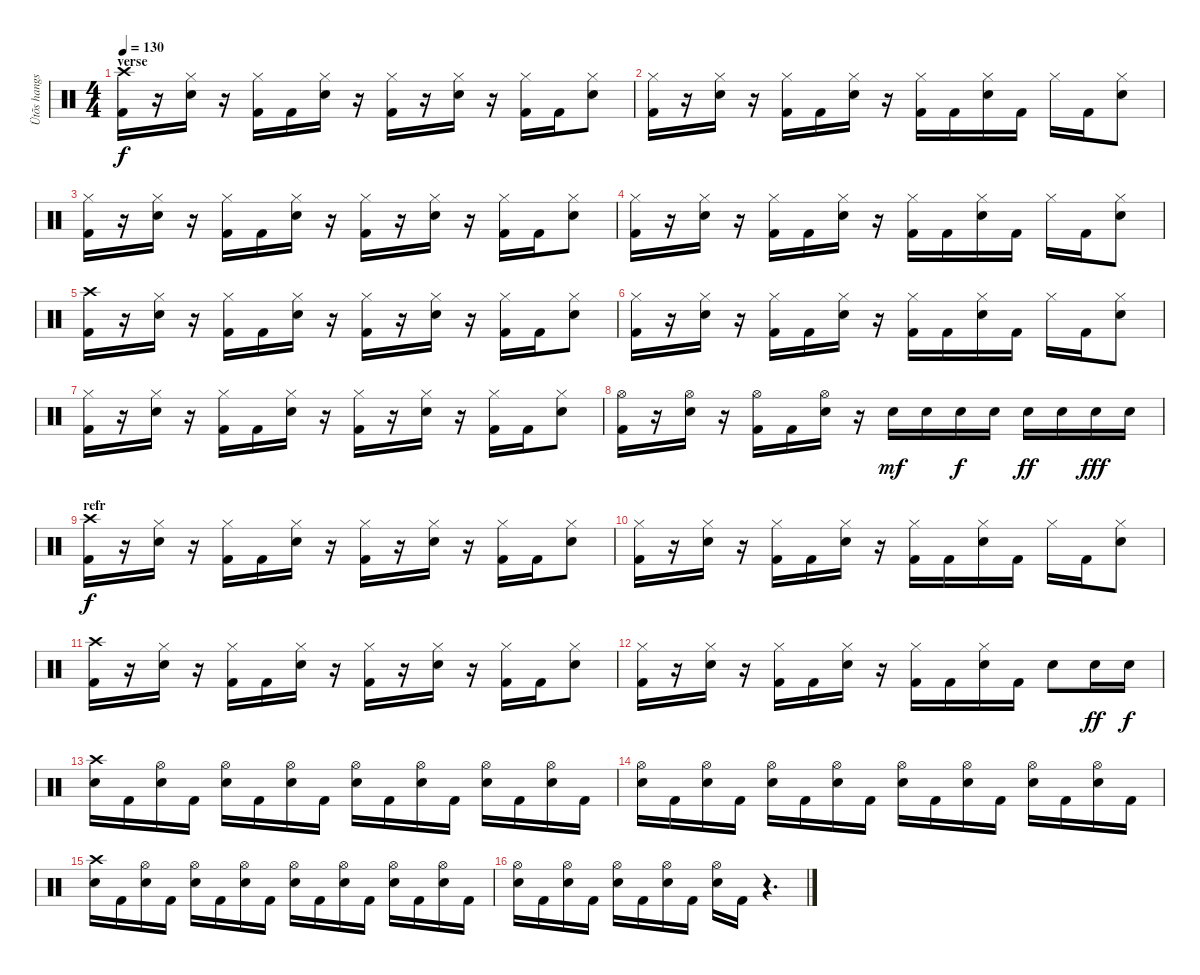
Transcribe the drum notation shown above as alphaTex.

\track ("Ütõs hangszer" "Ütõs hangs") {instrument percussion}
\staff {score}
\articulation defaults
\ts (4 4)
\section ("" "verse")
\tempo 130
\clef neutral
\ks c
("Crash high (hit)" "Kick (hit) 2").16{dy f} r.16 ("Hi-Hat (closed)" "Snare (hit) 2").16 r.16 ("Hi-Hat (closed)" "Kick (hit) 2").16 "Kick (hit) 2".16 ("Hi-Hat (closed)" "Snare (hit) 2").16 r.16 ("Hi-Hat (closed)" "Kick (hit) 2").16 r.16 ("Hi-Hat (closed)" "Snare (hit) 2").16 r.16 ("Hi-Hat (closed)" "Kick (hit) 2").16 "Kick (hit) 2".16 ("Hi-Hat (closed)" "Snare (hit) 2").8 |
("Hi-Hat (closed)" "Kick (hit) 2").16 r.16 ("Hi-Hat (closed)" "Snare (hit) 2").16 r.16 ("Hi-Hat (closed)" "Kick (hit) 2").16 "Kick (hit) 2".16 ("Hi-Hat (closed)" "Snare (hit) 2").16 r.16 ("Hi-Hat (closed)" "Kick (hit) 2").16 "Kick (hit) 2".16 ("Hi-Hat (closed)" "Snare (hit) 2").16 "Kick (hit) 2".16 "Hi-Hat (closed)".16 "Kick (hit) 2".16 ("Hi-Hat (closed)" "Snare (hit) 2").8 |
("Hi-Hat (closed)" "Kick (hit) 2").16 r.16 ("Hi-Hat (closed)" "Snare (hit) 2").16 r.16 ("Hi-Hat (closed)" "Kick (hit) 2").16 "Kick (hit) 2".16 ("Hi-Hat (closed)" "Snare (hit) 2").16 r.16 ("Hi-Hat (closed)" "Kick (hit) 2").16 r.16 ("Hi-Hat (closed)" "Snare (hit) 2").16 r.16 ("Hi-Hat (closed)" "Kick (hit) 2").16 "Kick (hit) 2".16 ("Hi-Hat (closed)" "Snare (hit) 2").8 |
("Hi-Hat (closed)" "Kick (hit) 2").16 r.16 ("Hi-Hat (closed)" "Snare (hit) 2").16 r.16 ("Hi-Hat (closed)" "Kick (hit) 2").16 "Kick (hit) 2".16 ("Hi-Hat (closed)" "Snare (hit) 2").16 r.16 ("Hi-Hat (closed)" "Kick (hit) 2").16 "Kick (hit) 2".16 ("Hi-Hat (closed)" "Snare (hit) 2").16 "Kick (hit) 2".16 "Hi-Hat (closed)".16 "Kick (hit) 2".16 ("Hi-Hat (closed)" "Snare (hit) 2").8 |
("Crash high (hit)" "Kick (hit) 2").16 r.16 ("Hi-Hat (closed)" "Snare (hit) 2").16 r.16 ("Hi-Hat (closed)" "Kick (hit) 2").16 "Kick (hit) 2".16 ("Hi-Hat (closed)" "Snare (hit) 2").16 r.16 ("Hi-Hat (closed)" "Kick (hit) 2").16 r.16 ("Hi-Hat (closed)" "Snare (hit) 2").16 r.16 ("Hi-Hat (closed)" "Kick (hit) 2").16 "Kick (hit) 2".16 ("Hi-Hat (closed)" "Snare (hit) 2").8 |
("Hi-Hat (closed)" "Kick (hit) 2").16 r.16 ("Hi-Hat (closed)" "Snare (hit) 2").16 r.16 ("Hi-Hat (closed)" "Kick (hit) 2").16 "Kick (hit) 2".16 ("Hi-Hat (closed)" "Snare (hit) 2").16 r.16 ("Hi-Hat (closed)" "Kick (hit) 2").16 "Kick (hit) 2".16 ("Hi-Hat (closed)" "Snare (hit) 2").16 "Kick (hit) 2".16 "Hi-Hat (closed)".16 "Kick (hit) 2".16 ("Hi-Hat (closed)" "Snare (hit) 2").8 |
("Hi-Hat (closed)" "Kick (hit) 2").16 r.16 ("Hi-Hat (closed)" "Snare (hit) 2").16 r.16 ("Hi-Hat (closed)" "Kick (hit) 2").16 "Kick (hit) 2".16 ("Hi-Hat (closed)" "Snare (hit) 2").16 r.16 ("Hi-Hat (closed)" "Kick (hit) 2").16 r.16 ("Hi-Hat (closed)" "Snare (hit) 2").16 r.16 ("Hi-Hat (closed)" "Kick (hit) 2").16 "Kick (hit) 2".16 ("Hi-Hat (closed)" "Snare (hit) 2").8 |
("Hi-Hat (open)" "Kick (hit) 2").16 r.16 ("Hi-Hat (open)" "Snare (hit) 2").16 r.16 ("Hi-Hat (open)" "Kick (hit) 2").16 "Kick (hit) 2".16 ("Hi-Hat (open)" "Snare (hit) 2").16 r.16 "Snare (hit) 2".16{dy mf} "Snare (hit) 2".16 "Snare (hit) 2".16{dy f} "Snare (hit) 2".16 "Snare (hit) 2".16{dy ff} "Snare (hit) 2".16 "Snare (hit) 2".16{dy fff} "Snare (hit) 2".16 |
\section ("" "refr")
("Crash high (hit)" "Kick (hit) 2").16{dy f} r.16 ("Hi-Hat (closed)" "Snare (hit) 2").16 r.16 ("Hi-Hat (closed)" "Kick (hit) 2").16 "Kick (hit) 2".16 ("Hi-Hat (closed)" "Snare (hit) 2").16 r.16 ("Hi-Hat (closed)" "Kick (hit) 2").16 r.16 ("Hi-Hat (closed)" "Snare (hit) 2").16 r.16 ("Hi-Hat (closed)" "Kick (hit) 2").16 "Kick (hit) 2".16 ("Hi-Hat (closed)" "Snare (hit) 2").8 |
("Hi-Hat (closed)" "Kick (hit) 2").16 r.16 ("Hi-Hat (closed)" "Snare (hit) 2").16 r.16 ("Hi-Hat (closed)" "Kick (hit) 2").16 "Kick (hit) 2".16 ("Hi-Hat (closed)" "Snare (hit) 2").16 r.16 ("Hi-Hat (closed)" "Kick (hit) 2").16 "Kick (hit) 2".16 ("Hi-Hat (closed)" "Snare (hit) 2").16 "Kick (hit) 2".16 "Hi-Hat (closed)".16 "Kick (hit) 2".16 ("Hi-Hat (closed)" "Snare (hit) 2").8 |
("Crash high (hit)" "Kick (hit) 2").16 r.16 ("Hi-Hat (closed)" "Snare (hit) 2").16 r.16 ("Hi-Hat (closed)" "Kick (hit) 2").16 "Kick (hit) 2".16 ("Hi-Hat (closed)" "Snare (hit) 2").16 r.16 ("Hi-Hat (closed)" "Kick (hit) 2").16 r.16 ("Hi-Hat (closed)" "Snare (hit) 2").16 r.16 ("Hi-Hat (closed)" "Kick (hit) 2").16 "Kick (hit) 2".16 ("Hi-Hat (closed)" "Snare (hit) 2").8 |
("Hi-Hat (closed)" "Kick (hit) 2").16 r.16 ("Hi-Hat (closed)" "Snare (hit) 2").16 r.16 ("Hi-Hat (closed)" "Kick (hit) 2").16 "Kick (hit) 2".16 ("Hi-Hat (closed)" "Snare (hit) 2").16 r.16 ("Hi-Hat (closed)" "Kick (hit) 2").16 "Kick (hit) 2".16 ("Hi-Hat (closed)" "Snare (hit) 2").16 "Kick (hit) 2".16 "Snare (hit) 2".8 "Snare (hit) 2".16{dy ff} "Snare (hit) 2".16{dy f} |
("Crash high (hit)" "Snare (hit) 2").16 "Kick (hit) 2".16 ("Hi-Hat (open)" "Snare (hit) 2").16 "Kick (hit) 2".16 ("Hi-Hat (open)" "Snare (hit) 2").16 "Kick (hit) 2".16 ("Hi-Hat (open)" "Snare (hit) 2").16 "Kick (hit) 2".16 ("Hi-Hat (open)" "Snare (hit) 2").16 "Kick (hit) 2".16 ("Hi-Hat (open)" "Snare (hit) 2").16 "Kick (hit) 2".16 ("Hi-Hat (open)" "Snare (hit) 2").16 "Kick (hit) 2".16 ("Hi-Hat (open)" "Snare (hit) 2").16 "Kick (hit) 2".16 |
("Hi-Hat (open)" "Snare (hit) 2").16 "Kick (hit) 2".16 ("Hi-Hat (open)" "Snare (hit) 2").16 "Kick (hit) 2".16 ("Hi-Hat (open)" "Snare (hit) 2").16 "Kick (hit) 2".16 ("Hi-Hat (open)" "Snare (hit) 2").16 "Kick (hit) 2".16 ("Hi-Hat (open)" "Snare (hit) 2").16 "Kick (hit) 2".16 ("Hi-Hat (open)" "Snare (hit) 2").16 "Kick (hit) 2".16 ("Hi-Hat (open)" "Snare (hit) 2").16 "Kick (hit) 2".16 ("Hi-Hat (open)" "Snare (hit) 2").16 "Kick (hit) 2".16 |
("Crash high (hit)" "Snare (hit) 2").16 "Kick (hit) 2".16 ("Hi-Hat (open)" "Snare (hit) 2").16 "Kick (hit) 2".16 ("Hi-Hat (open)" "Snare (hit) 2").16 "Kick (hit) 2".16 ("Hi-Hat (open)" "Snare (hit) 2").16 "Kick (hit) 2".16 ("Hi-Hat (open)" "Snare (hit) 2").16 "Kick (hit) 2".16 ("Hi-Hat (open)" "Snare (hit) 2").16 "Kick (hit) 2".16 ("Hi-Hat (open)" "Snare (hit) 2").16 "Kick (hit) 2".16 ("Hi-Hat (open)" "Snare (hit) 2").16 "Kick (hit) 2".16 |
("Hi-Hat (open)" "Snare (hit) 2").16 "Kick (hit) 2".16 ("Hi-Hat (open)" "Snare (hit) 2").16 "Kick (hit) 2".16 ("Hi-Hat (open)" "Snare (hit) 2").16 "Kick (hit) 2".16 ("Hi-Hat (open)" "Snare (hit) 2").16 "Kick (hit) 2".16 ("Hi-Hat (open)" "Snare (hit) 2").16 "Kick (hit) 2".16 r.4{d}
